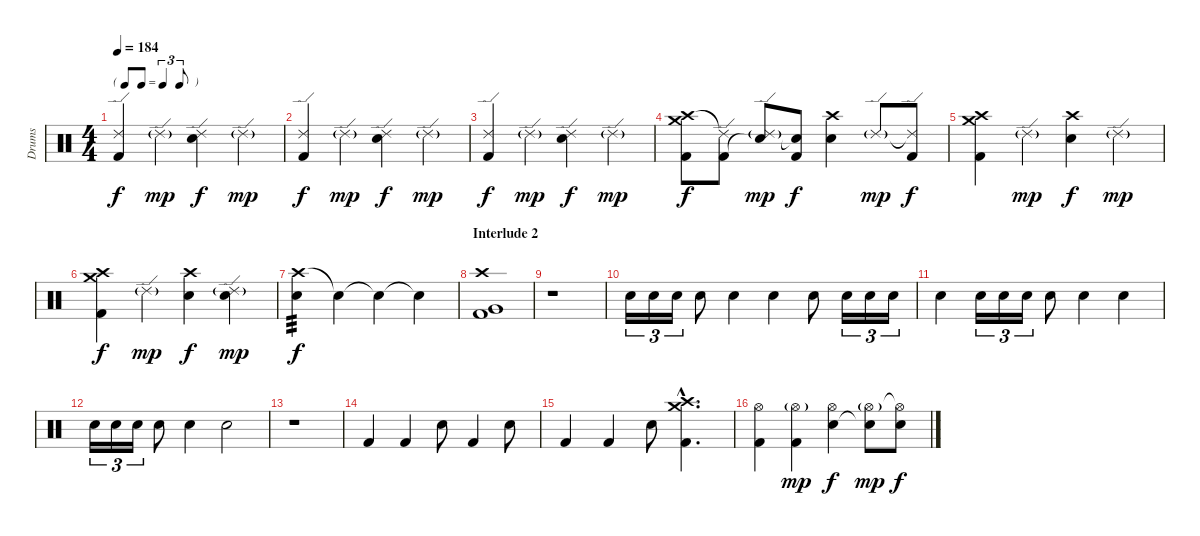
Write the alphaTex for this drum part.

\track ("Drums" "Drums") {instrument percussion}
\staff {score}
\articulation defaults
\ts (4 4)
\tf triplet8th
\tempo 184
\clef neutral
\ks c
("Ride (edge) 2" "Kick (hit) 2").4{dy f} "Ride (edge) 2"{g}.4{dy mp} ("Ride (edge) 2" "Electric Snare (hit)").4{dy f} "Ride (edge) 2"{g}.4{dy mp} |
("Ride (edge) 2" "Kick (hit) 2").4{dy f} "Ride (edge) 2"{g}.4{dy mp} ("Ride (edge) 2" "Electric Snare (hit)").4{dy f} "Ride (edge) 2"{g}.4{dy mp} |
("Ride (edge) 2" "Kick (hit) 2").4{dy f} "Ride (edge) 2"{g}.4{dy mp} ("Ride (edge) 2" "Electric Snare (hit)").4{dy f} "Ride (edge) 2"{g}.4{dy mp} |
("Crash high (hit)" "Crash medium (hit)" "Kick (hit) 2").8{dy f} ("Ride (edge) 2"{t} "Kick (hit) 2").8 ("Ride (edge) 2"{g} "Snare (hit)"{t}).8{dy mp} ("Snare (hit)"{t} "Kick (hit) 2").8{dy f} ("Crash high (hit)" "Electric Snare (hit)").4 "Ride (edge) 2"{g}.8{dy mp} ("Ride (edge) 2"{t} "Kick (hit) 2").8{dy f} |
("Crash high (hit)" "Crash medium (hit)" "Kick (hit) 2").4 "Ride (edge) 2"{g}.4{dy mp} ("Crash high (hit)" "Electric Snare (hit)").4{dy f} "Ride (edge) 2"{g}.4{dy mp} |
("Crash high (hit)" "Crash medium (hit)" "Kick (hit) 2").4{dy f} "Ride (edge) 2"{g}.4{dy mp} ("Crash high (hit)" "Electric Snare (hit)").4{dy f} ("Ride (edge) 2"{g} "Electric Snare (hit)").4{dy mp} |
("Crash high (hit)" "Electric Snare (hit)").4{tp 3 dy f} "Snare (hit)"{t}.4 "Electric Snare (hit)"{t}.4 "Snare (hit)"{t}.4 |
\section ("" "Interlude 2")
("Crash high (hit)" "Very Low Tom (hit)" "Kick (hit) 2").1 |
r.1 |
"Electric Snare (hit)".16{tu (3 2)} "Electric Snare (hit)".16{tu (3 2)} "Electric Snare (hit)".16{tu (3 2)} "Electric Snare (hit)".8 "Electric Snare (hit)".4 "Electric Snare (hit)".4 "Electric Snare (hit)".8 "Electric Snare (hit)".16{tu (3 2)} "Electric Snare (hit)".16{tu (3 2)} "Electric Snare (hit)".16{tu (3 2)} |
"Electric Snare (hit)".4 "Electric Snare (hit)".16{tu (3 2)} "Electric Snare (hit)".16{tu (3 2)} "Electric Snare (hit)".16{tu (3 2)} "Electric Snare (hit)".8 "Electric Snare (hit)".4 "Electric Snare (hit)".4 |
"Electric Snare (hit)".16{tu (3 2)} "Electric Snare (hit)".16{tu (3 2)} "Electric Snare (hit)".16{tu (3 2)} "Electric Snare (hit)".8 "Electric Snare (hit)".4 "Electric Snare (hit)".2 |
r.1 |
"Kick (hit) 2".4 "Kick (hit) 2".4 "Electric Snare (hit)".8 "Kick (hit) 2".4 "Electric Snare (hit)".8 |
"Kick (hit) 2".4 "Kick (hit) 2".4 "Electric Snare (hit)".8 ("Crash high (hit)"{hac} "Crash medium (hit)"{hac} "Kick (hit) 2"{hac}).4{d} |
("Hi-Hat (open)" "Kick (hit) 2").4 ("Hi-Hat (open)"{g} "Kick (hit) 2").4{dy mp} ("Hi-Hat (open)" "Electric Snare (hit)").4{dy f} ("Hi-Hat (open)"{g} "Snare (hit)"{t}).8{dy mp} ("Hi-Hat (open)"{t} "Electric Snare (hit)").8{dy f}
